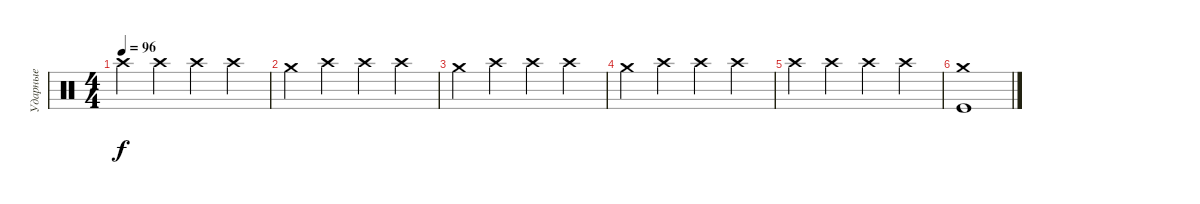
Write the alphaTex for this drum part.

\track ("Ударные" "Ударные") {instrument percussion}
\staff {score}
\articulation defaults
\ts (4 4)
\tempo 96
\clef neutral
\ks c "Crash high (hit)".4{dy f} "Crash high (hit)".4 "Crash high (hit)".4 "Crash high (hit)".4
|
"Crash medium (hit)".4 "Crash high (hit)".4 "Crash high (hit)".4 "Crash high (hit)".4 |
"Crash medium (hit)".4 "Crash high (hit)".4 "Crash high (hit)".4 "Crash high (hit)".4 |
"Crash medium (hit)".4 "Crash high (hit)".4 "Crash high (hit)".4 "Crash high (hit)".4 |
"Crash high (hit)".4 "Crash high (hit)".4 "Crash high (hit)".4 "Crash high (hit)".4 |
("Crash medium (hit)" "Kick (hit)").1
